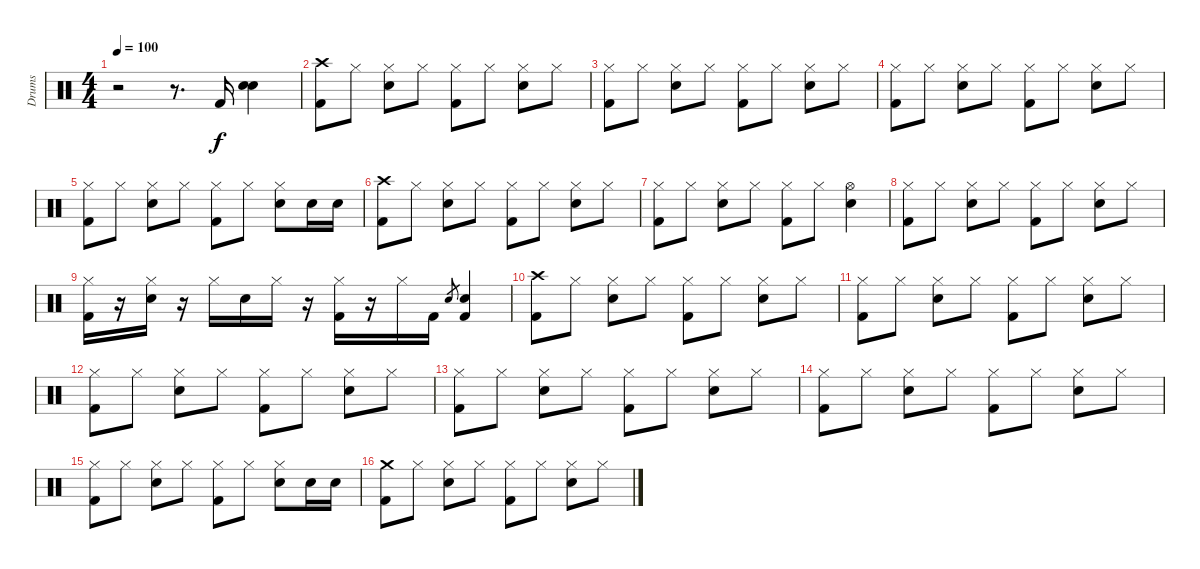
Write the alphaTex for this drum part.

\track ("Drums" "Drums") {instrument percussion}
\staff {score}
\articulation defaults
\ts (4 4)
\tempo 100
\clef neutral
\ks c
r.2{dy f} r.8{d} "Kick (hit) 2".16 ("Snare (hit) 2" "Snare (hit) 2").4 |
("Crash high (hit)" "Kick (hit) 2").8 "Hi-Hat (closed)".8 ("Hi-Hat (closed)" "Snare (hit) 2").8 "Hi-Hat (closed)".8 ("Hi-Hat (closed)" "Kick (hit) 2").8 "Hi-Hat (closed)".8 ("Hi-Hat (closed)" "Snare (hit) 2").8 "Hi-Hat (closed)".8 |
("Hi-Hat (closed)" "Kick (hit) 2").8 "Hi-Hat (closed)".8 ("Hi-Hat (closed)" "Snare (hit) 2").8 "Hi-Hat (closed)".8 ("Hi-Hat (closed)" "Kick (hit) 2").8 "Hi-Hat (closed)".8 ("Hi-Hat (closed)" "Snare (hit) 2").8 "Hi-Hat (closed)".8 |
("Hi-Hat (closed)" "Kick (hit) 2").8 "Hi-Hat (closed)".8 ("Hi-Hat (closed)" "Snare (hit) 2").8 "Hi-Hat (closed)".8 ("Hi-Hat (closed)" "Kick (hit) 2").8 "Hi-Hat (closed)".8 ("Hi-Hat (closed)" "Snare (hit) 2").8 "Hi-Hat (closed)".8 |
("Hi-Hat (closed)" "Kick (hit) 2").8 "Hi-Hat (closed)".8 ("Hi-Hat (closed)" "Snare (hit) 2").8 "Hi-Hat (closed)".8 ("Hi-Hat (closed)" "Kick (hit) 2").8 "Hi-Hat (closed)".8 ("Hi-Hat (closed)" "Snare (hit) 2").8 "Snare (hit) 2".16 "Snare (hit) 2".16 |
("Crash high (hit)" "Kick (hit) 2").8 "Hi-Hat (closed)".8 ("Hi-Hat (closed)" "Snare (hit) 2").8 "Hi-Hat (closed)".8 ("Hi-Hat (closed)" "Kick (hit) 2").8 "Hi-Hat (closed)".8 ("Hi-Hat (closed)" "Snare (hit) 2").8 "Hi-Hat (closed)".8 |
("Hi-Hat (closed)" "Kick (hit) 2").8 "Hi-Hat (closed)".8 ("Hi-Hat (closed)" "Snare (hit) 2").8 "Hi-Hat (closed)".8 ("Hi-Hat (closed)" "Kick (hit) 2").8 "Hi-Hat (closed)".8 ("Hi-Hat (open)" "Snare (hit) 2").4 |
("Hi-Hat (closed)" "Kick (hit) 2").8 "Hi-Hat (closed)".8 ("Hi-Hat (closed)" "Snare (hit) 2").8 "Hi-Hat (closed)".8 ("Hi-Hat (closed)" "Kick (hit) 2").8 "Hi-Hat (closed)".8 ("Hi-Hat (closed)" "Snare (hit) 2").8 "Hi-Hat (closed)".8 |
("Hi-Hat (closed)" "Kick (hit) 2").16 r.16 ("Hi-Hat (closed)" "Snare (hit) 2").16 r.16 "Hi-Hat (closed)".16 "Snare (hit) 2".16 "Hi-Hat (closed)".16 r.16 ("Hi-Hat (closed)" "Kick (hit) 2").16 r.16 "Hi-Hat (closed)".16 "Kick (hit) 2".16 "Snare (hit) 2".8{gr} ("Kick (hit) 2" "Snare (hit) 2").4 |
("Crash high (hit)" "Kick (hit) 2").8 "Hi-Hat (closed)".8 ("Hi-Hat (closed)" "Snare (hit) 2").8 "Hi-Hat (closed)".8 ("Hi-Hat (closed)" "Kick (hit) 2").8 "Hi-Hat (closed)".8 ("Hi-Hat (closed)" "Snare (hit) 2").8 "Hi-Hat (closed)".8 |
("Hi-Hat (closed)" "Kick (hit) 2").8 "Hi-Hat (closed)".8 ("Hi-Hat (closed)" "Snare (hit) 2").8 "Hi-Hat (closed)".8 ("Hi-Hat (closed)" "Kick (hit) 2").8 "Hi-Hat (closed)".8 ("Hi-Hat (closed)" "Snare (hit) 2").8 "Hi-Hat (closed)".8 |
("Hi-Hat (closed)" "Kick (hit) 2").8 "Hi-Hat (closed)".8 ("Hi-Hat (closed)" "Snare (hit) 2").8 "Hi-Hat (closed)".8 ("Hi-Hat (closed)" "Kick (hit) 2").8 "Hi-Hat (closed)".8 ("Hi-Hat (closed)" "Snare (hit) 2").8 "Hi-Hat (closed)".8 |
("Hi-Hat (closed)" "Kick (hit) 2").8 "Hi-Hat (closed)".8 ("Hi-Hat (closed)" "Snare (hit) 2").8 "Hi-Hat (closed)".8 ("Hi-Hat (closed)" "Kick (hit) 2").8 "Hi-Hat (closed)".8 ("Hi-Hat (closed)" "Snare (hit) 2").8 "Hi-Hat (closed)".8 |
("Hi-Hat (closed)" "Kick (hit) 2").8 "Hi-Hat (closed)".8 ("Hi-Hat (closed)" "Snare (hit) 2").8 "Hi-Hat (closed)".8 ("Hi-Hat (closed)" "Kick (hit) 2").8 "Hi-Hat (closed)".8 ("Hi-Hat (closed)" "Snare (hit) 2").8 "Hi-Hat (closed)".8 |
("Hi-Hat (closed)" "Kick (hit) 2").8 "Hi-Hat (closed)".8 ("Hi-Hat (closed)" "Snare (hit) 2").8 "Hi-Hat (closed)".8 ("Hi-Hat (closed)" "Kick (hit) 2").8 "Hi-Hat (closed)".8 ("Hi-Hat (closed)" "Snare (hit) 2").8 "Snare (hit) 2".16 "Snare (hit) 2".16 |
("Crash medium (hit)" "Kick (hit) 2").8 "Hi-Hat (closed)".8 ("Hi-Hat (closed)" "Snare (hit) 2").8 "Hi-Hat (closed)".8 ("Hi-Hat (closed)" "Kick (hit) 2").8 "Hi-Hat (closed)".8 ("Hi-Hat (closed)" "Snare (hit) 2").8 "Hi-Hat (closed)".8
